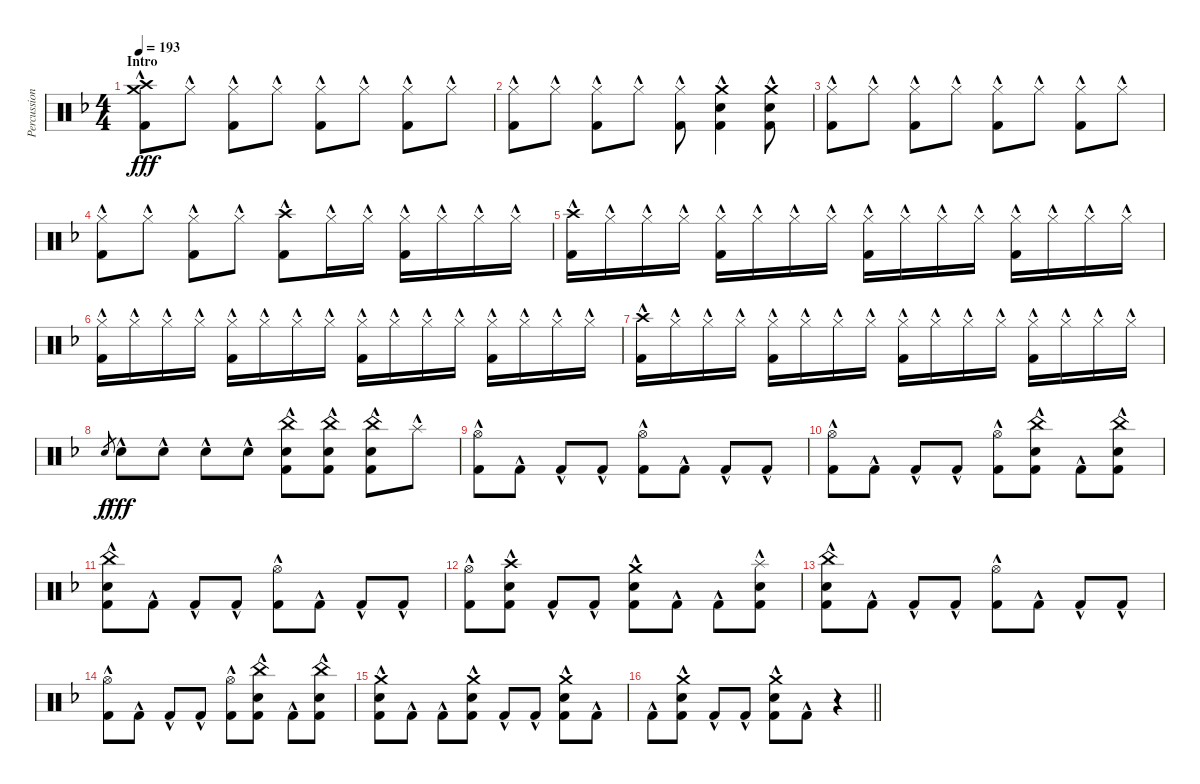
\track ("Percussion" "Percussion") {instrument percussion}
\staff {score}
\articulation defaults
\ts (4 4)
\section ("" "Intro")
\tempo 193
\clef neutral
\ks f
("Crash medium (hit)"{hac} "Crash high (hit)"{hac} "Kick (hit) 2"{hac}).8{dy fff volume 12} "Hi-Hat (closed)"{hac}.8 ("Hi-Hat (closed)"{hac} "Kick (hit) 2"{hac}).8 "Hi-Hat (closed)"{hac}.8 ("Hi-Hat (closed)"{hac} "Kick (hit) 2"{hac}).8 "Hi-Hat (closed)"{hac}.8 ("Hi-Hat (closed)"{hac} "Kick (hit) 2"{hac}).8 "Hi-Hat (closed)"{hac}.8 |
("Hi-Hat (closed)"{hac} "Kick (hit) 2"{hac}).8 "Hi-Hat (closed)"{hac}.8 ("Hi-Hat (closed)"{hac} "Kick (hit) 2"{hac}).8 "Hi-Hat (closed)"{hac}.8 ("Hi-Hat (closed)"{hac} "Kick (hit) 2"{hac}).8 ("Crash medium (hit)"{hac} "Electric Snare (hit)"{hac} "Kick (hit) 2"{hac}).4 ("Crash medium (hit)"{hac} "Electric Snare (hit)"{hac} "Kick (hit) 2"{hac}).8 |
("Hi-Hat (closed)"{hac} "Kick (hit) 2"{hac}).8 "Hi-Hat (closed)"{hac}.8 ("Hi-Hat (closed)"{hac} "Kick (hit) 2"{hac}).8 "Hi-Hat (closed)"{hac}.8 ("Hi-Hat (closed)"{hac} "Kick (hit) 2"{hac}).8 "Hi-Hat (closed)"{hac}.8 ("Hi-Hat (closed)"{hac} "Kick (hit) 2"{hac}).8 "Hi-Hat (closed)"{hac}.8 |
("Hi-Hat (closed)"{hac} "Kick (hit) 2"{hac}).8 "Hi-Hat (closed)"{hac}.8 ("Hi-Hat (closed)"{hac} "Kick (hit) 2"{hac}).8 "Hi-Hat (closed)"{hac}.8 ("Crash high (hit)"{hac} "Kick (hit) 2"{hac}).8 "Hi-Hat (closed)"{hac}.16 "Hi-Hat (closed)"{hac}.16 ("Hi-Hat (closed)"{hac} "Kick (hit) 2"{hac}).16 "Hi-Hat (closed)"{hac}.16 "Hi-Hat (closed)"{hac}.16 "Hi-Hat (closed)"{hac}.16 |
("Crash high (hit)"{hac} "Kick (hit) 2"{hac}).16 "Hi-Hat (closed)"{hac}.16 "Hi-Hat (closed)"{hac}.16 "Hi-Hat (closed)"{hac}.16 ("Hi-Hat (closed)"{hac} "Kick (hit) 2"{hac}).16 "Hi-Hat (closed)"{hac}.16 "Hi-Hat (closed)"{hac}.16 "Hi-Hat (closed)"{hac}.16 ("Hi-Hat (closed)"{hac} "Kick (hit) 2"{hac}).16 "Hi-Hat (closed)"{hac}.16 "Hi-Hat (closed)"{hac}.16 "Hi-Hat (closed)"{hac}.16 ("Hi-Hat (closed)"{hac} "Kick (hit) 2"{hac}).16 "Hi-Hat (closed)"{hac}.16 "Hi-Hat (closed)"{hac}.16 "Hi-Hat (closed)"{hac}.16 |
("Hi-Hat (closed)"{hac} "Kick (hit) 2"{hac}).16 "Hi-Hat (closed)"{hac}.16 "Hi-Hat (closed)"{hac}.16 "Hi-Hat (closed)"{hac}.16 ("Hi-Hat (closed)"{hac} "Kick (hit) 2"{hac}).16 "Hi-Hat (closed)"{hac}.16 "Hi-Hat (closed)"{hac}.16 "Hi-Hat (closed)"{hac}.16 ("Hi-Hat (closed)"{hac} "Kick (hit) 2"{hac}).16 "Hi-Hat (closed)"{hac}.16 "Hi-Hat (closed)"{hac}.16 "Hi-Hat (closed)"{hac}.16 ("Hi-Hat (closed)"{hac} "Kick (hit) 2"{hac}).16 "Hi-Hat (closed)"{hac}.16 "Hi-Hat (closed)"{hac}.16 "Hi-Hat (closed)"{hac}.16 |
("Crash high (hit)"{hac} "Kick (hit) 2"{hac}).16 "Hi-Hat (closed)"{hac}.16 "Hi-Hat (closed)"{hac}.16 "Hi-Hat (closed)"{hac}.16 ("Hi-Hat (closed)"{hac} "Kick (hit) 2"{hac}).16 "Hi-Hat (closed)"{hac}.16 "Hi-Hat (closed)"{hac}.16 "Hi-Hat (closed)"{hac}.16 ("Hi-Hat (closed)"{hac} "Kick (hit) 2"{hac}).16 "Hi-Hat (closed)"{hac}.16 "Hi-Hat (closed)"{hac}.16 "Hi-Hat (closed)"{hac}.16 ("Hi-Hat (closed)"{hac} "Kick (hit) 2"{hac}).16 "Hi-Hat (closed)"{hac}.16 "Hi-Hat (closed)"{hac}.16 "Hi-Hat (closed)"{hac}.16 |
"Electric Snare (hit)".8{gr dy f} "Electric Snare (hit)"{hac}.8{dy fff} "Electric Snare (hit)"{hac}.8 "Electric Snare (hit)"{hac}.8 "Electric Snare (hit)"{hac}.8 ("China (hit)"{hac} "Electric Snare (hit)"{hac} "Kick (hit) 2"{hac}).8 ("China (hit)"{hac} "Electric Snare (hit)"{hac} "Kick (hit) 2"{hac}).8 ("China (hit)"{hac} "Electric Snare (hit)"{hac} "Kick (hit) 2"{hac}).8 "Splash (hit)"{hac}.8 |
("Hi-Hat (open)"{hac} "Kick (hit) 2"{hac}).8 "Kick (hit) 2"{hac}.8 "Kick (hit) 2"{hac}.8 "Kick (hit) 2"{hac}.8 ("Hi-Hat (open)"{hac} "Kick (hit) 2"{hac}).8 "Kick (hit) 2"{hac}.8 "Kick (hit) 2"{hac}.8 "Kick (hit) 2"{hac}.8 |
("Hi-Hat (open)"{hac} "Kick (hit) 2"{hac}).8 "Kick (hit) 2"{hac}.8 "Kick (hit) 2"{hac}.8 "Kick (hit) 2"{hac}.8 ("Hi-Hat (open)"{hac} "Kick (hit) 2"{hac}).8 ("China (hit)"{hac} "Electric Snare (hit)"{hac} "Kick (hit) 2"{hac}).8 "Kick (hit) 2"{hac}.8 ("China (hit)"{hac} "Electric Snare (hit)"{hac} "Kick (hit) 2"{hac}).8 |
("China (hit)"{hac} "Electric Snare (hit)"{hac} "Kick (hit) 2"{hac}).8 "Kick (hit) 2"{hac}.8 "Kick (hit) 2"{hac}.8 "Kick (hit) 2"{hac}.8 ("Hi-Hat (open)"{hac} "Kick (hit) 2"{hac}).8 "Kick (hit) 2"{hac}.8 "Kick (hit) 2"{hac}.8 "Kick (hit) 2"{hac}.8 |
("Hi-Hat (open)"{hac} "Kick (hit) 2"{hac}).8 ("Crash high (hit)"{hac} "Electric Snare (hit)"{hac} "Kick (hit) 2"{hac}).8 "Kick (hit) 2"{hac}.8 "Kick (hit) 2"{hac}.8 ("Crash medium (hit)"{hac} "Electric Snare (hit)"{hac} "Kick (hit) 2"{hac}).8 "Kick (hit) 2"{hac}.8 "Kick (hit) 2"{hac}.8 ("Splash (hit)"{hac} "Electric Snare (hit)"{hac} "Kick (hit) 2"{hac}).8 |
("China (hit)"{hac} "Electric Snare (hit)"{hac} "Kick (hit) 2"{hac}).8 "Kick (hit) 2"{hac}.8 "Kick (hit) 2"{hac}.8 "Kick (hit) 2"{hac}.8 ("Hi-Hat (open)"{hac} "Kick (hit) 2"{hac}).8 "Kick (hit) 2"{hac}.8 "Kick (hit) 2"{hac}.8 "Kick (hit) 2"{hac}.8 |
("Hi-Hat (open)"{hac} "Kick (hit) 2"{hac}).8 "Kick (hit) 2"{hac}.8 "Kick (hit) 2"{hac}.8 "Kick (hit) 2"{hac}.8 ("Hi-Hat (open)"{hac} "Kick (hit) 2"{hac}).8 ("China (hit)"{hac} "Electric Snare (hit)"{hac} "Kick (hit) 2"{hac}).8 "Kick (hit) 2"{hac}.8 ("China (hit)"{hac} "Electric Snare (hit)"{hac} "Kick (hit) 2"{hac}).8 |
("Crash medium (hit)"{hac} "Electric Snare (hit)"{hac} "Kick (hit) 2"{hac}).8 "Kick (hit) 2"{hac}.8 "Kick (hit) 2"{hac}.8 ("Crash medium (hit)"{hac} "Electric Snare (hit)"{hac} "Kick (hit) 2"{hac}).8 "Kick (hit) 2"{hac}.8 "Kick (hit) 2"{hac}.8 ("Crash medium (hit)"{hac} "Electric Snare (hit)"{hac} "Kick (hit) 2"{hac}).8 "Kick (hit) 2"{hac}.8 |
\barLineRight lightlight "Kick (hit) 2"{hac}.8
("Crash medium (hit)"{hac} "Electric Snare (hit)"{hac} "Kick (hit) 2"{hac}).8 "Kick (hit) 2"{hac}.8 "Kick (hit) 2"{hac}.8 ("Crash medium (hit)"{hac} "Electric Snare (hit)"{hac} "Kick (hit) 2"{hac}).8 "Kick (hit) 2"{hac}.8 r.4
